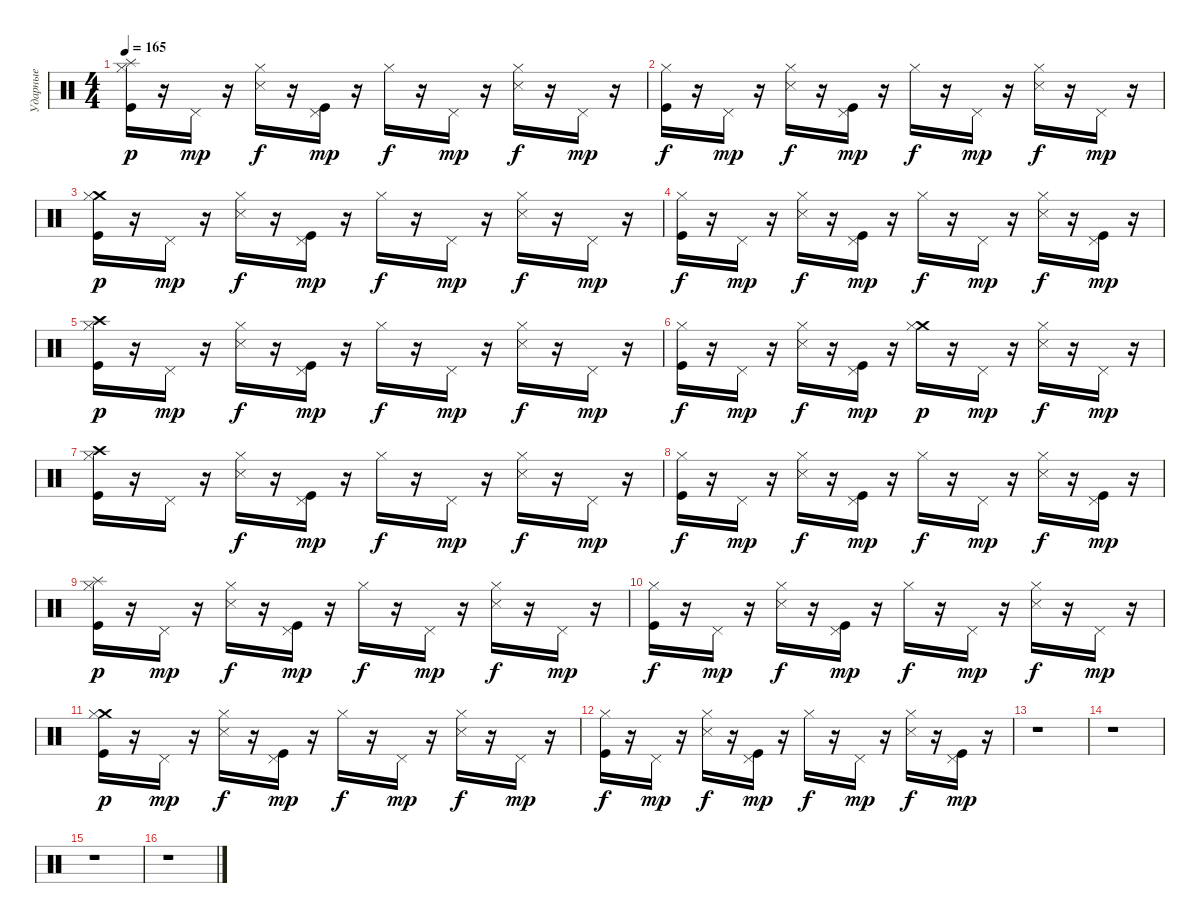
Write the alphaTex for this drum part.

\track ("Ударные" "Ударные") {instrument percussion}
\staff {score}
\articulation defaults
\ts (4 4)
\tempo 165
\clef neutral
\ks c
("Splash (hit)" "Kick (hit)" "Hi-Hat (closed)").16{dy p} r.16 "Pedal Hi-Hat (hit)".16{dy mp} r.16 ("Hi-Hat (closed)" "Snare (side stick) 3").16{dy f} r.16 ("Kick (hit)" "Pedal Hi-Hat (hit)").16{dy mp} r.16 "Hi-Hat (closed)".16{dy f} r.16 "Pedal Hi-Hat (hit)".16{dy mp} r.16 ("Hi-Hat (closed)" "Snare (side stick) 3").16{dy f} r.16 "Pedal Hi-Hat (hit)".16{dy mp} r.16 |
("Hi-Hat (closed)" "Kick (hit)").16{dy f} r.16 "Pedal Hi-Hat (hit)".16{dy mp} r.16 ("Snare (side stick) 3" "Hi-Hat (closed)").16{dy f} r.16 ("Kick (hit)" "Pedal Hi-Hat (hit)").16{dy mp} r.16 "Hi-Hat (closed)".16{dy f} r.16 "Pedal Hi-Hat (hit)".16{dy mp} r.16 ("Hi-Hat (closed)" "Snare (side stick) 3").16{dy f} r.16 "Pedal Hi-Hat (hit)".16{dy mp} r.16 |
("Crash medium (hit)" "Kick (hit)" "Hi-Hat (closed)").16{dy p} r.16 "Pedal Hi-Hat (hit)".16{dy mp} r.16 ("Hi-Hat (closed)" "Snare (side stick) 3").16{dy f} r.16 ("Kick (hit)" "Pedal Hi-Hat (hit)").16{dy mp} r.16 "Hi-Hat (closed)".16{dy f} r.16 "Pedal Hi-Hat (hit)".16{dy mp} r.16 ("Hi-Hat (closed)" "Snare (side stick) 3").16{dy f} r.16 "Pedal Hi-Hat (hit)".16{dy mp} r.16 |
("Hi-Hat (closed)" "Kick (hit)").16{dy f} r.16 "Pedal Hi-Hat (hit)".16{dy mp} r.16 ("Snare (side stick) 3" "Hi-Hat (closed)").16{dy f} r.16 ("Kick (hit)" "Pedal Hi-Hat (hit)").16{dy mp} r.16 "Hi-Hat (closed)".16{dy f} r.16 "Pedal Hi-Hat (hit)".16{dy mp} r.16 ("Hi-Hat (closed)" "Snare (side stick) 3").16{dy f} r.16 ("Pedal Hi-Hat (hit)" "Kick (hit)").16{dy mp} r.16 |
("Crash high (hit)" "Hi-Hat (closed)" "Kick (hit)").16{dy p} r.16 "Pedal Hi-Hat (hit)".16{dy mp} r.16 ("Snare (side stick) 3" "Hi-Hat (closed)").16{dy f} r.16 ("Pedal Hi-Hat (hit)" "Kick (hit)").16{dy mp} r.16 "Hi-Hat (closed)".16{dy f} r.16 "Pedal Hi-Hat (hit)".16{dy mp} r.16 ("Snare (side stick) 3" "Hi-Hat (closed)").16{dy f} r.16 "Pedal Hi-Hat (hit)".16{dy mp} r.16 |
("Kick (hit)" "Hi-Hat (closed)").16{dy f} r.16 "Pedal Hi-Hat (hit)".16{dy mp} r.16 ("Hi-Hat (closed)" "Snare (side stick) 3").16{dy f} r.16 ("Pedal Hi-Hat (hit)" "Kick (hit)").16{dy mp} r.16 ("Crash medium (hit)" "Hi-Hat (closed)").16{dy p} r.16 "Pedal Hi-Hat (hit)".16{dy mp} r.16 ("Hi-Hat (closed)" "Snare (side stick) 3").16{dy f} r.16 "Pedal Hi-Hat (hit)".16{dy mp} r.16 |
("Crash high (hit)" "Kick (hit)" "Hi-Hat (closed)").16 r.16 "Pedal Hi-Hat (hit)".16 r.16 ("Snare (side stick) 3" "Hi-Hat (closed)").16{dy f} r.16 ("Pedal Hi-Hat (hit)" "Kick (hit)").16{dy mp} r.16 "Hi-Hat (closed)".16{dy f} r.16 "Pedal Hi-Hat (hit)".16{dy mp} r.16 ("Hi-Hat (closed)" "Snare (side stick) 3").16{dy f} r.16 "Pedal Hi-Hat (hit)".16{dy mp} r.16 |
("Kick (hit)" "Hi-Hat (closed)").16{dy f} r.16 "Pedal Hi-Hat (hit)".16{dy mp} r.16 ("Snare (side stick) 3" "Hi-Hat (closed)").16{dy f} r.16 ("Pedal Hi-Hat (hit)" "Kick (hit)").16{dy mp} r.16 "Hi-Hat (closed)".16{dy f} r.16 "Pedal Hi-Hat (hit)".16{dy mp} r.16 ("Hi-Hat (closed)" "Snare (side stick) 3").16{dy f} r.16 ("Pedal Hi-Hat (hit)" "Kick (hit)").16{dy mp} r.16 |
("Splash (hit)" "Kick (hit)" "Hi-Hat (closed)").16{dy p} r.16 "Pedal Hi-Hat (hit)".16{dy mp} r.16 ("Hi-Hat (closed)" "Snare (side stick) 3").16{dy f} r.16 ("Kick (hit)" "Pedal Hi-Hat (hit)").16{dy mp} r.16 "Hi-Hat (closed)".16{dy f} r.16 "Pedal Hi-Hat (hit)".16{dy mp} r.16 ("Hi-Hat (closed)" "Snare (side stick) 3").16{dy f} r.16 "Pedal Hi-Hat (hit)".16{dy mp} r.16 |
("Hi-Hat (closed)" "Kick (hit)").16{dy f} r.16 "Pedal Hi-Hat (hit)".16{dy mp} r.16 ("Snare (side stick) 3" "Hi-Hat (closed)").16{dy f} r.16 ("Kick (hit)" "Pedal Hi-Hat (hit)").16{dy mp} r.16 "Hi-Hat (closed)".16{dy f} r.16 "Pedal Hi-Hat (hit)".16{dy mp} r.16 ("Hi-Hat (closed)" "Snare (side stick) 3").16{dy f} r.16 "Pedal Hi-Hat (hit)".16{dy mp} r.16 |
("Crash medium (hit)" "Kick (hit)" "Hi-Hat (closed)").16{dy p} r.16 "Pedal Hi-Hat (hit)".16{dy mp} r.16 ("Hi-Hat (closed)" "Snare (side stick) 3").16{dy f} r.16 ("Kick (hit)" "Pedal Hi-Hat (hit)").16{dy mp} r.16 "Hi-Hat (closed)".16{dy f} r.16 "Pedal Hi-Hat (hit)".16{dy mp} r.16 ("Hi-Hat (closed)" "Snare (side stick) 3").16{dy f} r.16 "Pedal Hi-Hat (hit)".16{dy mp} r.16 |
("Hi-Hat (closed)" "Kick (hit)").16{dy f} r.16 "Pedal Hi-Hat (hit)".16{dy mp} r.16 ("Snare (side stick) 3" "Hi-Hat (closed)").16{dy f} r.16 ("Kick (hit)" "Pedal Hi-Hat (hit)").16{dy mp} r.16 "Hi-Hat (closed)".16{dy f} r.16 "Pedal Hi-Hat (hit)".16{dy mp} r.16 ("Hi-Hat (closed)" "Snare (side stick) 3").16{dy f} r.16 ("Pedal Hi-Hat (hit)" "Kick (hit)").16{dy mp} r.16 |
r.1 |
r.1 |
r.1 |
r.1
